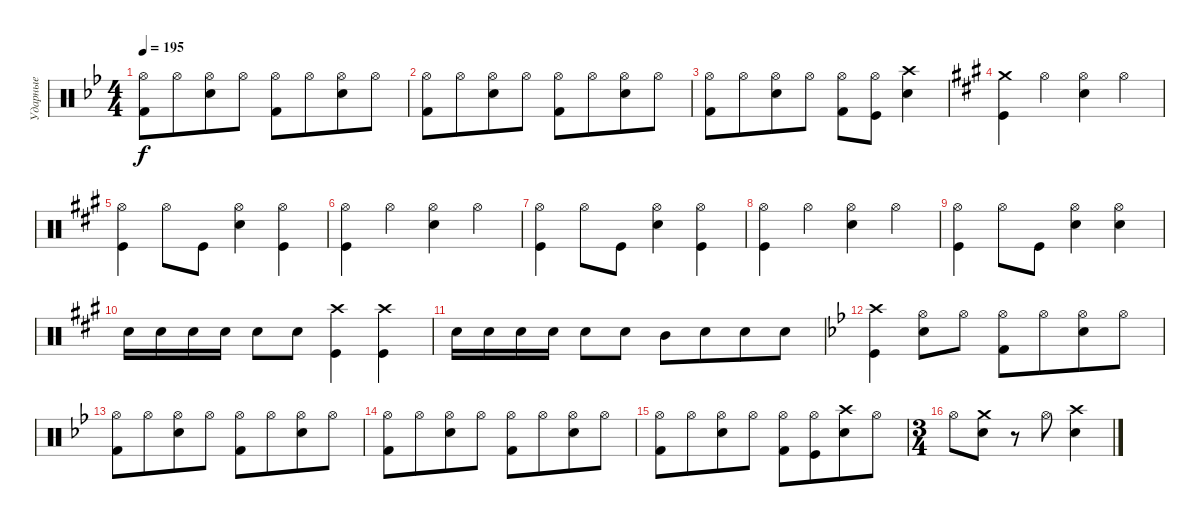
\track ("Ударные" "Ударные") {instrument percussion}
\staff {score}
\articulation defaults
\ts (4 4)
\tempo 195
\clef neutral
\ks gminor
("Kick (hit) 2" "Hi-Hat (open)").8{dy f} "Hi-Hat (open)".8{beam merge} ("Snare (hit) 2" "Hi-Hat (open)").8 "Hi-Hat (open)".8 ("Kick (hit) 2" "Hi-Hat (open)").8 "Hi-Hat (open)".8{beam merge} ("Snare (hit) 2" "Hi-Hat (open)").8 "Hi-Hat (open)".8 |
("Kick (hit) 2" "Hi-Hat (open)").8 "Hi-Hat (open)".8{beam merge} ("Snare (hit) 2" "Hi-Hat (open)").8 "Hi-Hat (open)".8 ("Kick (hit) 2" "Hi-Hat (open)").8 "Hi-Hat (open)".8{beam merge} ("Snare (hit) 2" "Hi-Hat (open)").8 "Hi-Hat (open)".8 |
("Kick (hit) 2" "Hi-Hat (open)").8 "Hi-Hat (open)".8{beam merge} ("Snare (hit) 2" "Hi-Hat (open)").8 "Hi-Hat (open)".8 ("Kick (hit) 2" "Hi-Hat (open)").8 ("Hi-Hat (open)" "Kick (hit)").8 ("Snare (hit) 2" "Crash high (hit)").4 |
\ks f#minor
("Kick (hit)" "Crash medium (hit)").4 "Hi-Hat (open)".4 ("Snare (hit) 2" "Hi-Hat (open)").4 "Hi-Hat (open)".4 |
("Kick (hit)" "Hi-Hat (open)").4 "Hi-Hat (open)".8 "Kick (hit)".8 ("Snare (hit) 2" "Hi-Hat (open)").4 ("Kick (hit)" "Hi-Hat (open)").4 |
("Kick (hit)" "Hi-Hat (open)").4 "Hi-Hat (open)".4 ("Snare (hit) 2" "Hi-Hat (open)").4 "Hi-Hat (open)".4 |
("Kick (hit)" "Hi-Hat (open)").4 "Hi-Hat (open)".8 "Kick (hit)".8 ("Snare (hit) 2" "Hi-Hat (open)").4 ("Kick (hit)" "Hi-Hat (open)").4 |
("Kick (hit)" "Hi-Hat (open)").4 "Hi-Hat (open)".4 ("Snare (hit) 2" "Hi-Hat (open)").4 "Hi-Hat (open)".4 |
("Kick (hit)" "Hi-Hat (open)").4 "Hi-Hat (open)".8 "Kick (hit)".8 ("Snare (hit) 2" "Hi-Hat (open)").4 ("Snare (hit) 2" "Hi-Hat (open)").4 |
"Snare (hit) 2".16 "Snare (hit) 2".16 "Snare (hit) 2".16 "Snare (hit) 2".16 "Snare (hit) 2".8 "Snare (hit) 2".8 ("Kick (hit)" "Crash high (hit)").4 ("Kick (hit)" "Crash high (hit)").4 |
"Snare (hit) 2".16 "Snare (hit) 2".16 "Snare (hit) 2".16 "Snare (hit) 2".16 "Snare (hit) 2".8 "Snare (hit) 2".8 "Mid Tom (hit)".8 "Snare (hit) 2".8{beam merge} "Snare (hit) 2".8 "Snare (hit) 2".8 |
\ks gminor
("Kick (hit)" "Crash high (hit)").4 ("Snare (hit) 2" "Hi-Hat (open)").8 "Hi-Hat (open)".8 ("Kick (hit) 2" "Hi-Hat (open)").8 "Hi-Hat (open)".8{beam merge} ("Snare (hit) 2" "Hi-Hat (open)").8 "Hi-Hat (open)".8 |
("Kick (hit) 2" "Hi-Hat (open)").8 "Hi-Hat (open)".8{beam merge} ("Snare (hit) 2" "Hi-Hat (open)").8 "Hi-Hat (open)".8 ("Kick (hit) 2" "Hi-Hat (open)").8 "Hi-Hat (open)".8{beam merge} ("Snare (hit) 2" "Hi-Hat (open)").8 "Hi-Hat (open)".8 |
("Kick (hit) 2" "Hi-Hat (open)").8 "Hi-Hat (open)".8{beam merge} ("Snare (hit) 2" "Hi-Hat (open)").8 "Hi-Hat (open)".8 ("Kick (hit) 2" "Hi-Hat (open)").8 "Hi-Hat (open)".8{beam merge} ("Snare (hit) 2" "Hi-Hat (open)").8 "Hi-Hat (open)".8 |
("Kick (hit) 2" "Hi-Hat (open)").8 "Hi-Hat (open)".8{beam merge} ("Snare (hit) 2" "Hi-Hat (open)").8 "Hi-Hat (open)".8 ("Kick (hit) 2" "Hi-Hat (open)").8 ("Hi-Hat (open)" "Kick (hit)").8{beam merge} ("Snare (hit) 2" "Crash high (hit)").8 "Hi-Hat (open)".8 |
\ts (3 4)
"Hi-Hat (open)".8 ("Snare (hit) 2" "Crash medium (hit)").8 r.8 "Hi-Hat (open)".8 ("Snare (hit) 2" "Crash high (hit)").4
